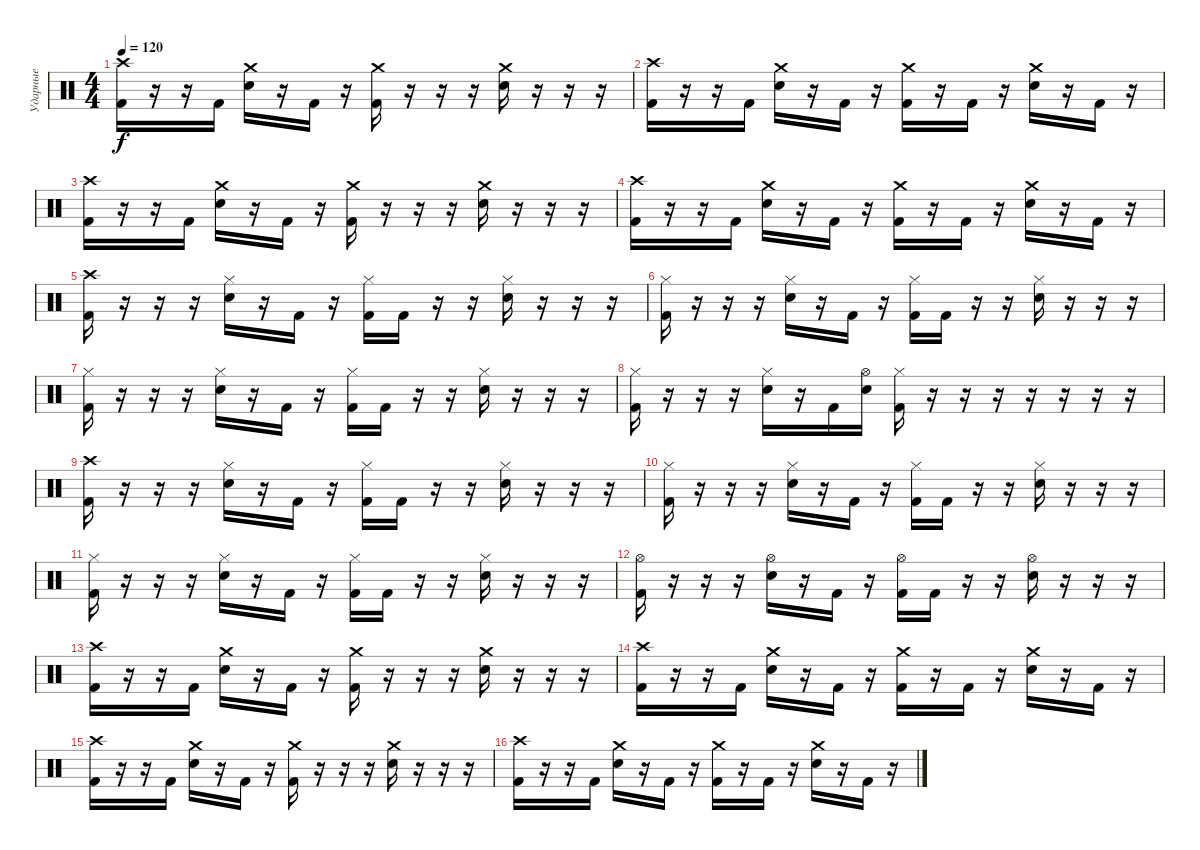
\track ("Ударные" "Ударные") {instrument percussion}
\staff
\articulation defaults
\ts (4 4)
\tempo 120
\clef neutral
\ks c
("Crash high (hit)" "Kick (hit) 2").16{dy f} r.16 r.16 "Kick (hit) 2".16 ("Crash medium (hit)" "Electric Snare (hit)").16 r.16 "Kick (hit) 2".16 r.16 ("Crash medium (hit)" "Kick (hit) 2").16 r.16 r.16 r.16 ("Crash medium (hit)" "Electric Snare (hit)").16 r.16 r.16 r.16 |
("Crash high (hit)" "Kick (hit) 2").16 r.16 r.16 "Kick (hit) 2".16 ("Crash medium (hit)" "Electric Snare (hit)").16 r.16 "Kick (hit) 2".16 r.16 ("Crash medium (hit)" "Kick (hit) 2").16 r.16 "Kick (hit) 2".16 r.16 ("Crash medium (hit)" "Electric Snare (hit)").16 r.16 "Kick (hit) 2".16 r.16 |
("Crash high (hit)" "Kick (hit) 2").16 r.16 r.16 "Kick (hit) 2".16 ("Crash medium (hit)" "Electric Snare (hit)").16 r.16 "Kick (hit) 2".16 r.16 ("Crash medium (hit)" "Kick (hit) 2").16 r.16 r.16 r.16 ("Crash medium (hit)" "Electric Snare (hit)").16 r.16 r.16 r.16 |
("Crash high (hit)" "Kick (hit) 2").16 r.16 r.16 "Kick (hit) 2".16 ("Crash medium (hit)" "Electric Snare (hit)").16 r.16 "Kick (hit) 2".16 r.16 ("Crash medium (hit)" "Kick (hit) 2").16 r.16 "Kick (hit) 2".16 r.16 ("Crash medium (hit)" "Electric Snare (hit)").16 r.16 "Kick (hit) 2".16 r.16 |
("Crash high (hit)" "Kick (hit) 2").16 r.16 r.16 r.16 ("Hi-Hat (closed)" "Electric Snare (hit)").16 r.16 "Kick (hit) 2".16 r.16 ("Hi-Hat (closed)" "Kick (hit) 2").16 "Kick (hit) 2".16 r.16 r.16 ("Hi-Hat (closed)" "Electric Snare (hit)").16 r.16 r.16 r.16 |
("Hi-Hat (closed)" "Kick (hit) 2").16 r.16 r.16 r.16 ("Hi-Hat (closed)" "Electric Snare (hit)").16 r.16 "Kick (hit) 2".16 r.16 ("Hi-Hat (closed)" "Kick (hit) 2").16 "Kick (hit) 2".16 r.16 r.16 ("Hi-Hat (closed)" "Electric Snare (hit)").16 r.16 r.16 r.16 |
("Hi-Hat (closed)" "Kick (hit) 2").16 r.16 r.16 r.16 ("Hi-Hat (closed)" "Electric Snare (hit)").16 r.16 "Kick (hit) 2".16 r.16 ("Hi-Hat (closed)" "Kick (hit) 2").16 "Kick (hit) 2".16 r.16 r.16 ("Hi-Hat (closed)" "Electric Snare (hit)").16 r.16 r.16 r.16 |
("Hi-Hat (closed)" "Kick (hit) 2").16 r.16 r.16 r.16 ("Hi-Hat (closed)" "Electric Snare (hit)").16 r.16 "Kick (hit) 2".16 ("Hi-Hat (open)" "Electric Snare (hit)").16 ("Hi-Hat (closed)" "Kick (hit) 2").16 r.16 r.16 r.16 r.16 r.16 r.16 r.16 |
("Crash high (hit)" "Kick (hit) 2").16 r.16 r.16 r.16 ("Hi-Hat (closed)" "Electric Snare (hit)").16 r.16 "Kick (hit) 2".16 r.16 ("Hi-Hat (closed)" "Kick (hit) 2").16 "Kick (hit) 2".16 r.16 r.16 ("Hi-Hat (closed)" "Electric Snare (hit)").16 r.16 r.16 r.16 |
("Hi-Hat (closed)" "Kick (hit) 2").16 r.16 r.16 r.16 ("Hi-Hat (closed)" "Electric Snare (hit)").16 r.16 "Kick (hit) 2".16 r.16 ("Hi-Hat (closed)" "Kick (hit) 2").16 "Kick (hit) 2".16 r.16 r.16 ("Hi-Hat (closed)" "Electric Snare (hit)").16 r.16 r.16 r.16 |
("Hi-Hat (closed)" "Kick (hit) 2").16 r.16 r.16 r.16 ("Hi-Hat (closed)" "Electric Snare (hit)").16 r.16 "Kick (hit) 2".16 r.16 ("Hi-Hat (closed)" "Kick (hit) 2").16 "Kick (hit) 2".16 r.16 r.16 ("Hi-Hat (closed)" "Electric Snare (hit)").16 r.16 r.16 r.16 |
("Hi-Hat (open)" "Kick (hit) 2").16 r.16 r.16 r.16 ("Hi-Hat (open)" "Electric Snare (hit)").16 r.16 "Kick (hit) 2".16 r.16 ("Hi-Hat (open)" "Kick (hit) 2").16 "Kick (hit) 2".16 r.16 r.16 ("Hi-Hat (open)" "Electric Snare (hit)").16 r.16 r.16 r.16 |
("Crash high (hit)" "Kick (hit) 2").16 r.16 r.16 "Kick (hit) 2".16 ("Crash medium (hit)" "Electric Snare (hit)").16 r.16 "Kick (hit) 2".16 r.16 ("Crash medium (hit)" "Kick (hit) 2").16 r.16 r.16 r.16 ("Crash medium (hit)" "Electric Snare (hit)").16 r.16 r.16 r.16 |
("Crash high (hit)" "Kick (hit) 2").16 r.16 r.16 "Kick (hit) 2".16 ("Crash medium (hit)" "Electric Snare (hit)").16 r.16 "Kick (hit) 2".16 r.16 ("Crash medium (hit)" "Kick (hit) 2").16 r.16 "Kick (hit) 2".16 r.16 ("Crash medium (hit)" "Electric Snare (hit)").16 r.16 "Kick (hit) 2".16 r.16 |
("Crash high (hit)" "Kick (hit) 2").16 r.16 r.16 "Kick (hit) 2".16 ("Crash medium (hit)" "Electric Snare (hit)").16 r.16 "Kick (hit) 2".16 r.16 ("Crash medium (hit)" "Kick (hit) 2").16 r.16 r.16 r.16 ("Crash medium (hit)" "Electric Snare (hit)").16 r.16 r.16 r.16 |
("Crash high (hit)" "Kick (hit) 2").16 r.16 r.16 "Kick (hit) 2".16 ("Crash medium (hit)" "Electric Snare (hit)").16 r.16 "Kick (hit) 2".16 r.16 ("Crash medium (hit)" "Kick (hit) 2").16 r.16 "Kick (hit) 2".16 r.16 ("Crash medium (hit)" "Electric Snare (hit)").16 r.16 "Kick (hit) 2".16 r.16
